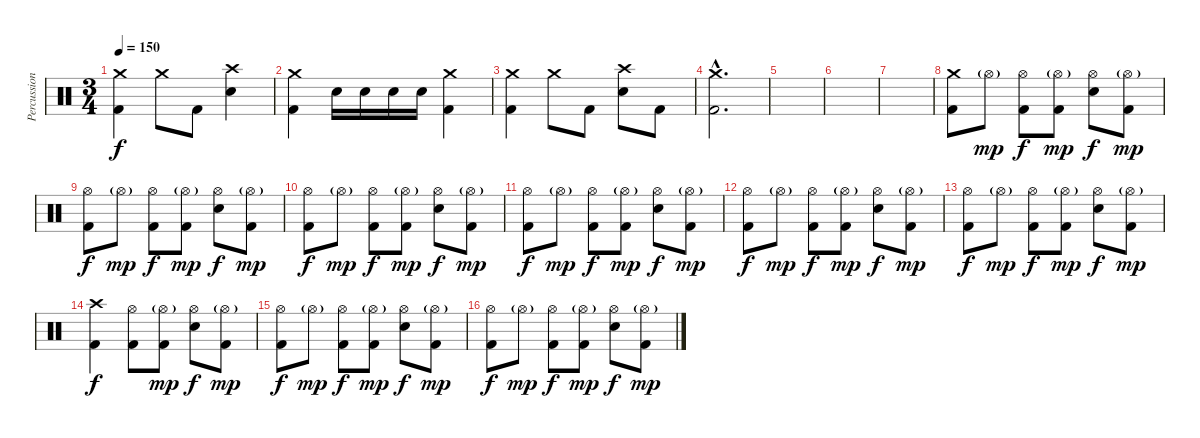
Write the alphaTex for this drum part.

\track ("Percussion" "Percussion") {instrument percussion}
\staff {score}
\articulation defaults
\ts (3 4)
\tempo 150
\clef neutral
\ks c
("Crash medium (hit)" "Kick (hit) 2").4{dy f} "Crash medium (hit)".8 "Kick (hit) 2".8 ("Crash high (hit)" "Electric Snare (hit)").4 |
("Crash medium (hit)" "Kick (hit) 2").4 "Electric Snare (hit)".16 "Electric Snare (hit)".16 "Electric Snare (hit)".16 "Electric Snare (hit)".16 ("Crash medium (hit)" "Kick (hit) 2").4 |
("Crash medium (hit)" "Kick (hit) 2").4 "Crash medium (hit)".8 "Kick (hit) 2".8 ("Crash high (hit)" "Electric Snare (hit)").8 "Kick (hit) 2".8 |
("Crash medium (hit)"{hac} "Kick (hit) 2"{hac}).2{d} |
|
|
|
("Crash medium (hit)" "Kick (hit) 2").8 "Hi-Hat (open)"{g}.8{dy mp} ("Hi-Hat (open)" "Kick (hit) 2").8{dy f} ("Hi-Hat (open)"{g} "Kick (hit) 2").8{dy mp} ("Hi-Hat (open)" "Electric Snare (hit)").8{dy f} ("Hi-Hat (open)"{g} "Kick (hit) 2").8{dy mp} |
("Hi-Hat (open)" "Kick (hit) 2").8{dy f} "Hi-Hat (open)"{g}.8{dy mp} ("Hi-Hat (open)" "Kick (hit) 2").8{dy f} ("Hi-Hat (open)"{g} "Kick (hit) 2").8{dy mp} ("Hi-Hat (open)" "Electric Snare (hit)").8{dy f} ("Hi-Hat (open)"{g} "Kick (hit) 2").8{dy mp} |
("Hi-Hat (open)" "Kick (hit) 2").8{dy f} "Hi-Hat (open)"{g}.8{dy mp} ("Hi-Hat (open)" "Kick (hit) 2").8{dy f} ("Hi-Hat (open)"{g} "Kick (hit) 2").8{dy mp} ("Hi-Hat (open)" "Electric Snare (hit)").8{dy f} ("Hi-Hat (open)"{g} "Kick (hit) 2").8{dy mp} |
("Hi-Hat (open)" "Kick (hit) 2").8{dy f} "Hi-Hat (open)"{g}.8{dy mp} ("Hi-Hat (open)" "Kick (hit) 2").8{dy f} ("Hi-Hat (open)"{g} "Kick (hit) 2").8{dy mp} ("Hi-Hat (open)" "Electric Snare (hit)").8{dy f} ("Hi-Hat (open)"{g} "Kick (hit) 2").8{dy mp} |
("Hi-Hat (open)" "Kick (hit) 2").8{dy f} "Hi-Hat (open)"{g}.8{dy mp} ("Hi-Hat (open)" "Kick (hit) 2").8{dy f} ("Hi-Hat (open)"{g} "Kick (hit) 2").8{dy mp} ("Hi-Hat (open)" "Electric Snare (hit)").8{dy f} ("Hi-Hat (open)"{g} "Kick (hit) 2").8{dy mp} |
("Hi-Hat (open)" "Kick (hit) 2").8{dy f} "Hi-Hat (open)"{g}.8{dy mp} ("Hi-Hat (open)" "Kick (hit) 2").8{dy f} ("Hi-Hat (open)"{g} "Kick (hit) 2").8{dy mp} ("Hi-Hat (open)" "Electric Snare (hit)").8{dy f} ("Hi-Hat (open)"{g} "Kick (hit) 2").8{dy mp} |
("Crash high (hit)" "Kick (hit) 2").4{dy f} ("Hi-Hat (open)" "Kick (hit) 2").8 ("Hi-Hat (open)"{g} "Kick (hit) 2").8{dy mp} ("Hi-Hat (open)" "Electric Snare (hit)").8{dy f} ("Hi-Hat (open)"{g} "Kick (hit) 2").8{dy mp} |
("Hi-Hat (open)" "Kick (hit) 2").8{dy f} "Hi-Hat (open)"{g}.8{dy mp} ("Hi-Hat (open)" "Kick (hit) 2").8{dy f} ("Hi-Hat (open)"{g} "Kick (hit) 2").8{dy mp} ("Hi-Hat (open)" "Electric Snare (hit)").8{dy f} ("Hi-Hat (open)"{g} "Kick (hit) 2").8{dy mp} |
("Hi-Hat (open)" "Kick (hit) 2").8{dy f} "Hi-Hat (open)"{g}.8{dy mp} ("Hi-Hat (open)" "Kick (hit) 2").8{dy f} ("Hi-Hat (open)"{g} "Kick (hit) 2").8{dy mp} ("Hi-Hat (open)" "Electric Snare (hit)").8{dy f} ("Hi-Hat (open)"{g} "Kick (hit) 2").8{dy mp}
